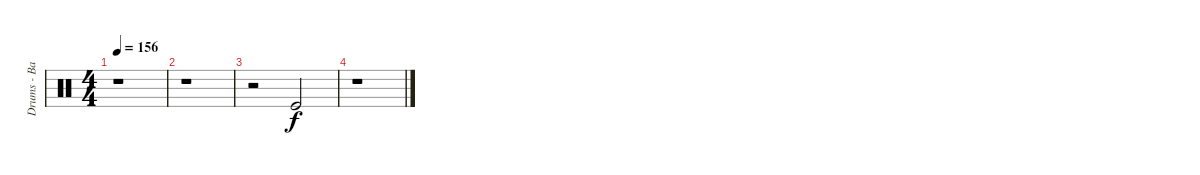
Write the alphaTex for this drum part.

\track ("Drums - Bass Drums" "Drums - Ba") {instrument percussion}
\staff {score}
\articulation defaults
\ts (4 4)
\tempo 156
\clef neutral
\ks c
r.1{dy f} |
r.1 |
r.2 "Kick (hit)".2 |
r.1
